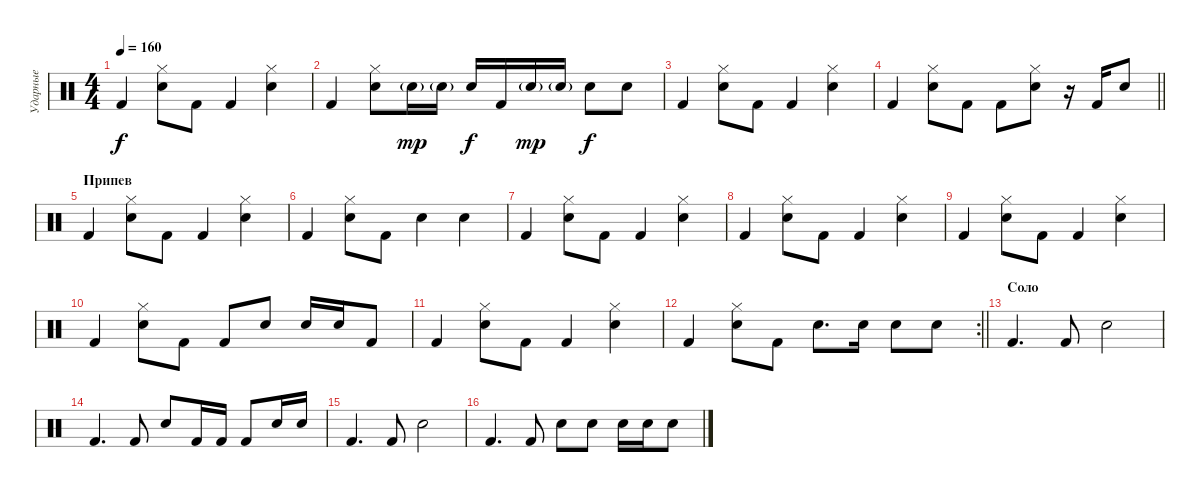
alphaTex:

\track ("Ударные" "Ударные") {instrument percussion}
\staff {score}
\articulation defaults
\ts (4 4)
\tempo 160
\clef neutral
\ks c "Kick (hit) 2".4{dy f}
("Hi-Hat (closed)" "Snare (hit) 2").8 "Kick (hit) 2".8 "Kick (hit) 2".4 ("Hi-Hat (closed)" "Snare (hit) 2").4 |
"Kick (hit) 2".4 ("Hi-Hat (closed)" "Snare (hit) 2").8 "Snare (hit) 2"{g}.16{dy mp} "Snare (hit) 2"{g}.16 "Snare (hit) 2".16{dy f} "Kick (hit) 2".16 "Snare (hit) 2"{g}.16{dy mp} "Snare (hit) 2"{g}.16 "Snare (hit) 2".8{dy f} "Snare (hit) 2".8 |
"Kick (hit) 2".4 ("Hi-Hat (closed)" "Snare (hit) 2").8 "Kick (hit) 2".8 "Kick (hit) 2".4 ("Hi-Hat (closed)" "Snare (hit) 2").4 |
\barLineRight lightlight "Kick (hit) 2".4
("Hi-Hat (closed)" "Snare (hit) 2").8 "Kick (hit) 2".8 "Kick (hit) 2".8 ("Hi-Hat (closed)" "Snare (hit) 2").8 r.16 "Kick (hit) 2".16 "Snare (hit) 2".8 |
\section ("" "Припев")
"Kick (hit) 2".4 ("Hi-Hat (closed)" "Snare (hit) 2").8 "Kick (hit) 2".8 "Kick (hit) 2".4 ("Hi-Hat (closed)" "Snare (hit) 2").4 |
"Kick (hit) 2".4 ("Hi-Hat (closed)" "Snare (hit) 2").8 "Kick (hit) 2".8 "Snare (hit) 2".4 "Snare (hit) 2".4 |
"Kick (hit) 2".4 ("Hi-Hat (closed)" "Snare (hit) 2").8 "Kick (hit) 2".8 "Kick (hit) 2".4 ("Hi-Hat (closed)" "Snare (hit) 2").4 |
"Kick (hit) 2".4 ("Hi-Hat (closed)" "Snare (hit) 2").8 "Kick (hit) 2".8 "Kick (hit) 2".4 ("Hi-Hat (closed)" "Snare (hit) 2").4 |
"Kick (hit) 2".4 ("Hi-Hat (closed)" "Snare (hit) 2").8 "Kick (hit) 2".8 "Kick (hit) 2".4 ("Hi-Hat (closed)" "Snare (hit) 2").4 |
"Kick (hit) 2".4 ("Hi-Hat (closed)" "Snare (hit) 2").8 "Kick (hit) 2".8 "Kick (hit) 2".8 "Snare (hit) 2".8 "Snare (hit) 2".16 "Snare (hit) 2".16 "Kick (hit) 2".8 |
"Kick (hit) 2".4 ("Hi-Hat (closed)" "Snare (hit) 2").8 "Kick (hit) 2".8 "Kick (hit) 2".4 ("Hi-Hat (closed)" "Snare (hit) 2").4 |
\rc 2
\barLineRight lightlight "Kick (hit) 2".4
("Hi-Hat (closed)" "Snare (hit) 2").8 "Kick (hit) 2".8 "Snare (hit) 2".8{d} "Snare (hit) 2".16 "Snare (hit) 2".8 "Snare (hit) 2".8 |
\section ("" "Соло")
"Kick (hit) 2".4{d} "Kick (hit) 2".8 "Snare (hit) 2".2 |
"Kick (hit) 2".4{d} "Kick (hit) 2".8 "Snare (hit) 2".8 "Kick (hit) 2".16 "Kick (hit) 2".16 "Kick (hit) 2".8 "Snare (hit) 2".16 "Snare (hit) 2".16 |
"Kick (hit) 2".4{d} "Kick (hit) 2".8 "Snare (hit) 2".2 |
"Kick (hit) 2".4{d} "Kick (hit) 2".8 "Snare (hit) 2".8 "Snare (hit) 2".8 "Snare (hit) 2".16 "Snare (hit) 2".16 "Snare (hit) 2".8
